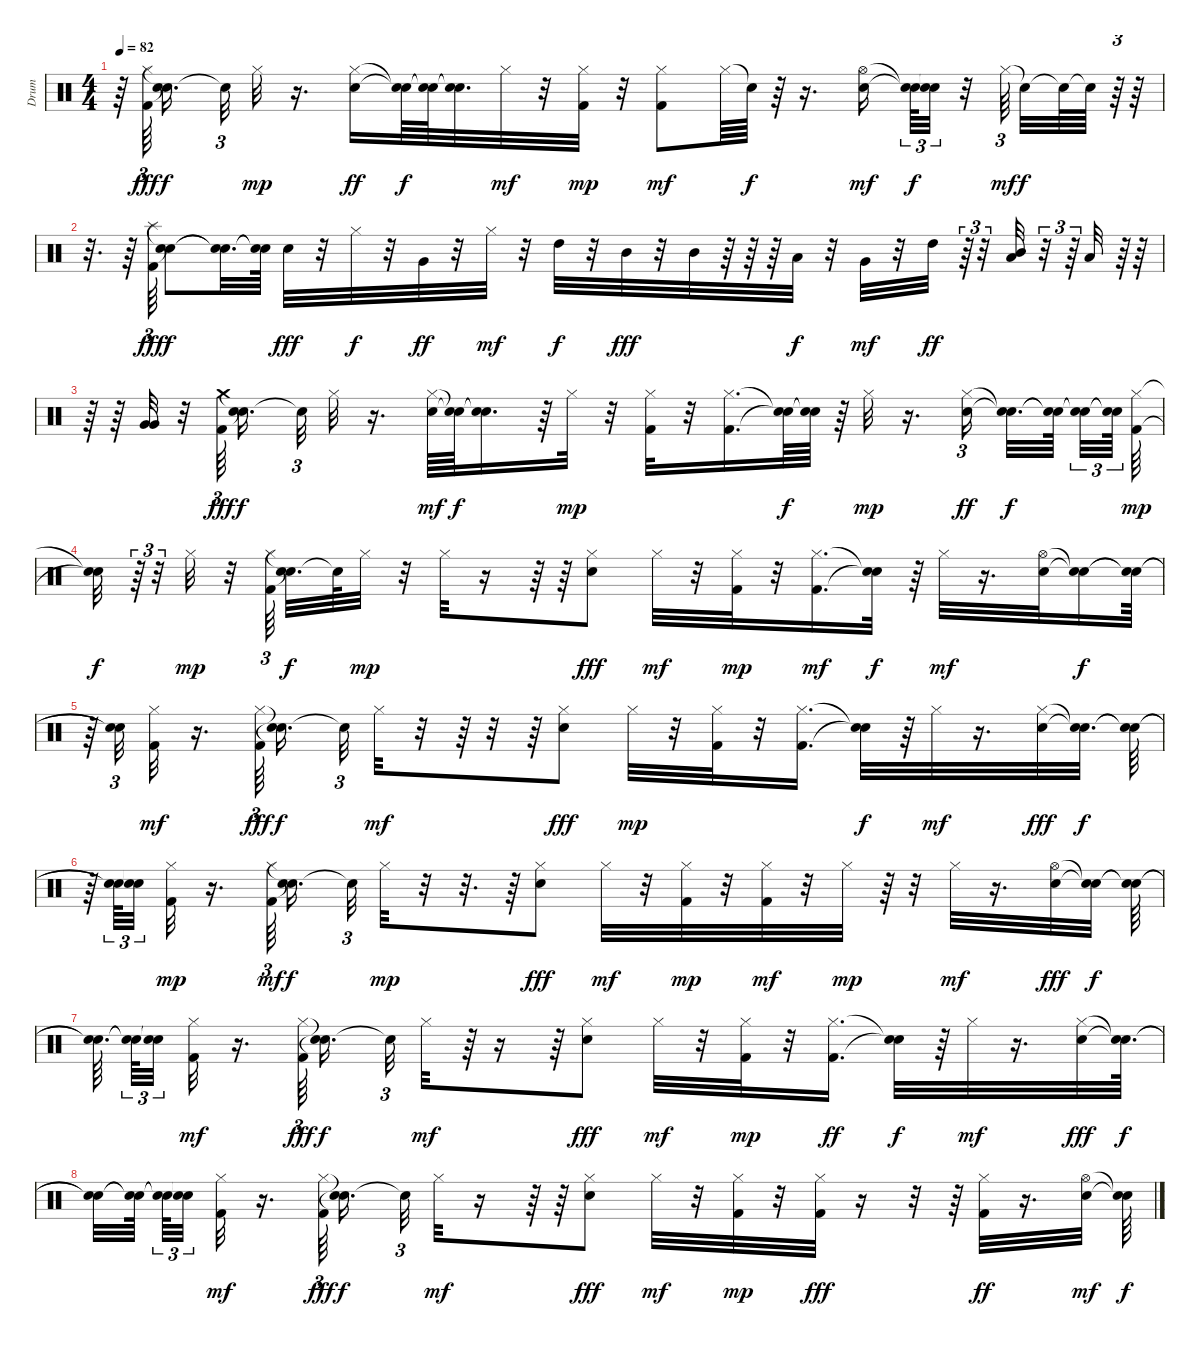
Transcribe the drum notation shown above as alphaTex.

\track ("Drum" "Drum") {instrument percussion}
\staff {score}
\articulation defaults
\ts (4 4)
\tempo 82
\clef neutral
\ks c
r.64{dy f} ("Kick (hit) 2" "Hi-Hat (closed)").64{tu (3 2) dy fff beam splitsecondary} ("Snare (hit)"{t} "Snare (hit)"{t}).16{d dy f beam splitsecondary} "Snare (hit)"{t}.32{tu (3 2)} "Hi-Hat (closed)".32{dy mp} r.16{d} ("Electric Snare (hit)" "Hi-Hat (closed)").16{dy ff} ("Snare (hit)"{t} "Snare (hit)"{t}).64{dy f} ("Snare (hit)"{t} "Snare (hit)"{t}).64 ("Snare (hit)"{t} "Snare (hit)"{t}).32{d} "Hi-Hat (closed)".32{dy mf} r.32 ("Kick (hit) 2" "Hi-Hat (closed)").32{dy mp} r.32 ("Kick (hit) 2" "Hi-Hat (closed)").8{dy mf} "Hi-Hat (closed)".64 "Snare (hit)"{t}.64{dy f} r.64 r.16{d} ("Electric Snare (hit)" "Hi-Hat (open)").16{dy mf beam splitsecondary} ("Snare (hit)"{t} "Snare (hit)"{t}).64{tu (3 2) dy f} ("Snare (hit)"{t} "Snare (hit)"{t}).32{tu (3 2)} r.32 "Hi-Hat (closed)".64{tu (3 2) dy mf beam splitsecondary} "Snare (hit)"{t}.32{dy f} "Snare (hit)"{t}.64 "Snare (hit)"{t}.64 r.64{tu (3 2)} r.64 |
r.32{d} r.64 ("Kick (hit) 2" "Splash (hit)").64{tu (3 2) dy fff} ("Snare (hit)"{t} "Snare (hit)"{t}).8{dy f} ("Snare (hit)"{t} "Snare (hit)"{t}).32{d} ("Snare (hit)"{t} "Snare (hit)"{t}).64 "Electric Snare (hit)".32{dy fff} r.32 "Hi-Hat (closed)".32{dy f} r.32 "Very Low Tom (hit)".32{dy ff} r.32 "Hi-Hat (closed)".32{dy mf} r.32 "High Tom (hit)".32{dy f} r.32 "Mid Tom (hit)".32{dy fff} r.32 "Mid Tom (hit)".32 r.64 r.64 r.64 "Low Tom (hit)".32{dy f} r.32 "Very Low Tom (hit)".32{dy mf} r.32 "High Tom (hit)".32{dy ff} r.64{tu (3 2)} r.32{tu (3 2)} ("Low Tom (hit)" "Mid Tom (hit)").32 r.32{tu (3 2)} r.64{tu (3 2)} "Low Tom (hit)".32 r.64{tu (3 2)} r.64 |
r.64 r.64 ("Very Low Tom (hit)" "Very Low Tom (hit)").32 r.32 ("Kick (hit) 2" "Crash medium (hit)").64{tu (3 2) dy fff beam splitsecondary} ("Snare (hit)"{t} "Snare (hit)"{t}).16{d dy f beam splitsecondary} "Snare (hit)"{t}.32{tu (3 2)} "Hi-Hat (closed)".32 r.16{d} ("Electric Snare (hit)" "Hi-Hat (closed)").64{dy mf} ("Snare (hit)"{t} "Snare (hit)"{t}).64{dy f} ("Snare (hit)"{t} "Snare (hit)"{t}).16{d} r.64 "Hi-Hat (closed)".32{dy mp} r.32 ("Kick (hit) 2" "Hi-Hat (closed)").32 r.32 ("Kick (hit) 2" "Hi-Hat (closed)").16{d} ("Snare (hit)"{t} "Snare (hit)"{t}).64{dy f} ("Snare (hit)"{t} "Snare (hit)"{t}).64 r.64 "Hi-Hat (closed)".32{dy mp} r.16{d} ("Electric Snare (hit)" "Hi-Hat (closed)").16{tu (3 2) dy ff beam splitsecondary} ("Snare (hit)"{t} "Snare (hit)"{t}).32{d dy f} ("Snare (hit)"{t} "Snare (hit)"{t}).64{beam splitsecondary} ("Snare (hit)"{t} "Snare (hit)"{t}).32{tu (3 2)} ("Snare (hit)"{t} "Snare (hit)"{t}).64{tu (3 2)} ("Kick (hit) 2" "Hi-Hat (closed)").64{dy mp} |
("Snare (hit)"{t} "Snare (hit)"{t}).32{dy f} r.64{tu (3 2)} r.32{tu (3 2)} "Hi-Hat (closed)".32{dy mp} r.32 ("Kick (hit) 2" "Hi-Hat (closed)").64{tu (3 2) beam splitsecondary} ("Snare (hit)"{t} "Snare (hit)"{t}).32{d dy f} "Snare (hit)"{t}.64 "Hi-Hat (closed)".32{dy mp} r.32 "Hi-Hat (closed)".32 r.16 r.64 r.64 ("Electric Snare (hit)" "Hi-Hat (closed)").8{dy fff} "Hi-Hat (closed)".32{dy mf} r.32 ("Kick (hit) 2" "Hi-Hat (closed)").32{dy mp} r.32 ("Kick (hit) 2" "Hi-Hat (closed)").16{d dy mf} ("Snare (hit)"{t} "Snare (hit)"{t}).32{dy f} r.64 "Hi-Hat (closed)".32{dy mf} r.16{d} ("Electric Snare (hit)" "Hi-Hat (open)").32 ("Snare (hit)"{t} "Snare (hit)"{t}).16{dy f} ("Snare (hit)"{t} "Snare (hit)"{t}).64 |
r.64 ("Snare (hit)"{t} "Snare (hit)"{t}).32{tu (3 2)} ("Kick (hit) 2" "Hi-Hat (closed)").32{dy mf} r.16{d} ("Kick (hit) 2" "Hi-Hat (closed)").64{tu (3 2) dy fff} ("Snare (hit)"{t} "Snare (hit)"{t}).16{d dy f} "Snare (hit)"{t}.32{tu (3 2)} "Hi-Hat (closed)".32{dy mf} r.32 r.64 r.32 r.64 ("Electric Snare (hit)" "Hi-Hat (closed)").8{dy fff} "Hi-Hat (closed)".32{dy mp} r.32 ("Kick (hit) 2" "Hi-Hat (closed)").32 r.32 ("Kick (hit) 2" "Hi-Hat (closed)").16{d} ("Snare (hit)"{t} "Snare (hit)"{t}).32{dy f} r.64 "Hi-Hat (closed)".32{dy mf} r.16{d} ("Electric Snare (hit)" "Hi-Hat (closed)").32{dy fff} ("Snare (hit)"{t} "Snare (hit)"{t}).32{d dy f} ("Snare (hit)"{t} "Snare (hit)"{t}).64 |
r.64 ("Snare (hit)"{t} "Snare (hit)"{t}).64{tu (3 2)} ("Snare (hit)"{t} "Snare (hit)"{t}).32{tu (3 2) beam splitsecondary} ("Kick (hit) 2" "Hi-Hat (closed)").32{dy mp} r.16{d} ("Kick (hit) 2" "Hi-Hat (closed)").64{tu (3 2) dy mf} ("Snare (hit)"{t} "Snare (hit)"{t}).16{d dy f} "Snare (hit)"{t}.32{tu (3 2)} "Hi-Hat (closed)".32{dy mp} r.32 r.32{d} r.64 ("Electric Snare (hit)" "Hi-Hat (closed)").8{dy fff} "Hi-Hat (closed)".32{dy mf} r.32 ("Kick (hit) 2" "Hi-Hat (closed)").32{dy mp} r.32 ("Kick (hit) 2" "Hi-Hat (closed)").32{dy mf} r.32 "Hi-Hat (closed)".32{dy mp} r.64 r.32 "Hi-Hat (closed)".32{dy mf} r.16{d} ("Electric Snare (hit)" "Hi-Hat (open)").32{dy fff} ("Snare (hit)"{t} "Snare (hit)"{t}).32{dy f} ("Snare (hit)"{t} "Snare (hit)"{t}).64 |
("Snare (hit)"{t} "Snare (hit)"{t}).64{d beam splitsecondary} ("Snare (hit)"{t} "Snare (hit)"{t}).64{tu (3 2)} ("Snare (hit)"{t} "Snare (hit)"{t}).32{tu (3 2) beam splitsecondary} ("Kick (hit) 2" "Hi-Hat (closed)").32{dy mf} r.16{d} ("Kick (hit) 2" "Hi-Hat (closed)").64{tu (3 2) dy fff} ("Snare (hit)"{t} "Snare (hit)"{t}).16{d dy f} "Snare (hit)"{t}.32{tu (3 2)} "Hi-Hat (closed)".32{dy mf} r.64 r.16 r.64 ("Electric Snare (hit)" "Hi-Hat (closed)").8{dy fff} "Hi-Hat (closed)".32{dy mf} r.32 ("Kick (hit) 2" "Hi-Hat (closed)").32{dy mp} r.32 ("Kick (hit) 2" "Hi-Hat (closed)").16{d dy ff} ("Snare (hit)"{t} "Snare (hit)"{t}).32{dy f} r.64 "Hi-Hat (closed)".32{dy mf} r.16{d} ("Electric Snare (hit)" "Hi-Hat (closed)").32{dy fff} ("Snare (hit)"{t} "Snare (hit)"{t}).64{d dy f} |
("Snare (hit)"{t} "Snare (hit)"{t}).32 ("Snare (hit)"{t} "Snare (hit)"{t}).64{beam splitsecondary} ("Snare (hit)"{t} "Snare (hit)"{t}).64{tu (3 2)} ("Snare (hit)"{t} "Snare (hit)"{t}).32{tu (3 2) beam splitsecondary} ("Kick (hit) 2" "Hi-Hat (closed)").32{dy mf} r.16{d} ("Kick (hit) 2" "Hi-Hat (closed)").64{tu (3 2) dy fff} ("Snare (hit)"{t} "Snare (hit)"{t}).16{d dy f} "Snare (hit)"{t}.32{tu (3 2)} "Hi-Hat (closed)".32{dy mf} r.16 r.64 r.64 ("Electric Snare (hit)" "Hi-Hat (closed)").8{dy fff} "Hi-Hat (closed)".32{dy mf} r.32 ("Kick (hit) 2" "Hi-Hat (closed)").32{dy mp} r.32 ("Kick (hit) 2" "Hi-Hat (closed)").32{dy fff} r.16 r.32 r.64 ("Kick (hit) 2" "Hi-Hat (closed)").32{dy ff} r.16{d} ("Electric Snare (hit)" "Hi-Hat (open)").32{dy mf} ("Snare (hit)"{t} "Snare (hit)"{t}).64{dy f}
